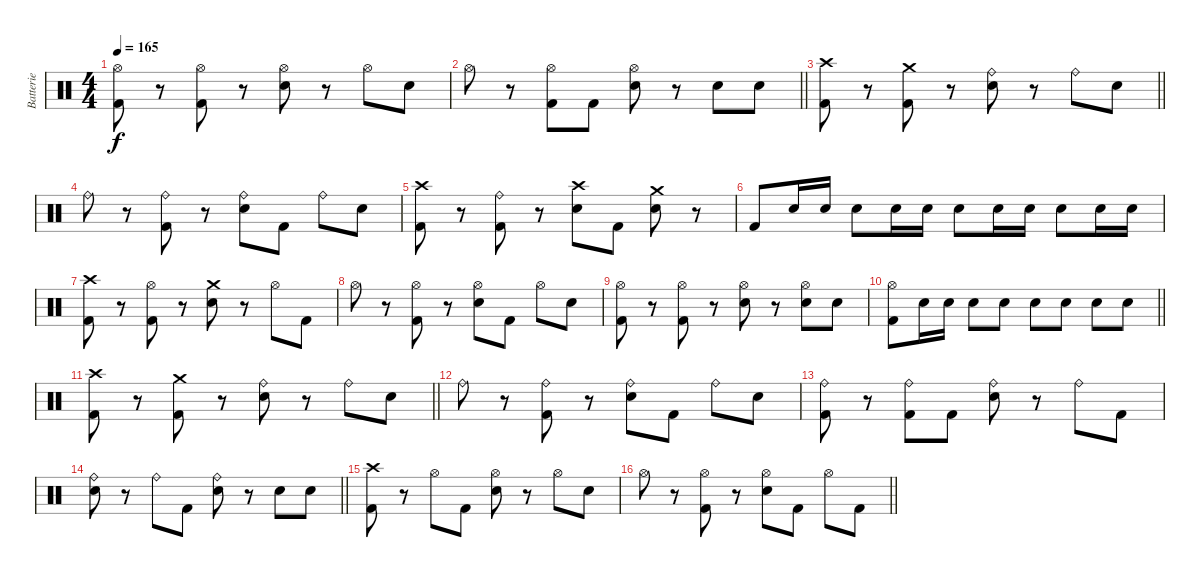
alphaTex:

\track ("Batterie" "Batterie") {instrument percussion}
\staff {score}
\articulation defaults
\ts (4 4)
\tempo 165
\clef neutral
\ks c
("Hi-Hat (open)" "Kick (hit) 2").8{dy f} r.8 ("Hi-Hat (open)" "Kick (hit) 2").8 r.8 ("Hi-Hat (open)" "Electric Snare (hit)").8 r.8 "Hi-Hat (open)".8 "Electric Snare (hit)".8 |
\barLineRight lightlight "Hi-Hat (open)".8
r.8 ("Hi-Hat (open)" "Kick (hit) 2").8 "Kick (hit) 2".8 ("Hi-Hat (open)" "Electric Snare (hit)").8 r.8 "Electric Snare (hit)".8 "Electric Snare (hit)".8 |
\barLineRight lightlight
("Crash high (hit)" "Kick (hit) 2").8 r.8 ("Crash medium (hit)" "Kick (hit) 2").8 r.8 ("Ride (bell)" "Electric Snare (hit)").8 r.8 "Ride (bell)".8 "Electric Snare (hit)".8 |
"Ride (bell)".8 r.8 ("Ride (bell)" "Kick (hit) 2").8 r.8 ("Ride (bell)" "Electric Snare (hit)").8 "Kick (hit) 2".8 "Ride (bell)".8 "Electric Snare (hit)".8 |
("Crash high (hit)" "Kick (hit) 2").8 r.8 ("Ride (bell)" "Kick (hit) 2").8 r.8 ("Crash high (hit)" "Electric Snare (hit)").8 "Kick (hit) 2".8 ("Crash medium (hit)" "Electric Snare (hit)").8 r.8 |
"Kick (hit) 2".8 "Electric Snare (hit)".16 "Electric Snare (hit)".16 "Electric Snare (hit)".8 "Electric Snare (hit)".16 "Electric Snare (hit)".16 "Electric Snare (hit)".8 "Electric Snare (hit)".16 "Electric Snare (hit)".16 "Electric Snare (hit)".8 "Electric Snare (hit)".16 "Electric Snare (hit)".16 |
("Crash high (hit)" "Kick (hit) 2").8 r.8 ("Hi-Hat (open)" "Kick (hit) 2").8 r.8 ("Crash medium (hit)" "Electric Snare (hit)").8 r.8 "Hi-Hat (open)".8 "Kick (hit) 2".8 |
"Hi-Hat (open)".8 r.8 ("Hi-Hat (open)" "Kick (hit) 2").8 r.8 ("Hi-Hat (open)" "Electric Snare (hit)").8 "Kick (hit) 2".8 "Hi-Hat (open)".8 "Electric Snare (hit)".8 |
("Hi-Hat (open)" "Kick (hit) 2").8 r.8 ("Hi-Hat (open)" "Kick (hit) 2").8 r.8 ("Hi-Hat (open)" "Electric Snare (hit)").8 r.8 ("Hi-Hat (open)" "Electric Snare (hit)").8 "Electric Snare (hit)".8 |
\barLineRight lightlight
("Hi-Hat (open)" "Kick (hit) 2").8 "Electric Snare (hit)".16 "Electric Snare (hit)".16 "Electric Snare (hit)".8 "Electric Snare (hit)".8 "Electric Snare (hit)".8 "Electric Snare (hit)".8 "Electric Snare (hit)".8 "Electric Snare (hit)".8 |
\barLineRight lightlight
("Crash high (hit)" "Kick (hit) 2").8 r.8 ("Crash medium (hit)" "Kick (hit) 2").8 r.8 ("Ride (bell)" "Electric Snare (hit)").8 r.8 "Ride (bell)".8 "Electric Snare (hit)".8 |
"Ride (bell)".8 r.8 ("Ride (bell)" "Kick (hit) 2").8 r.8 ("Ride (bell)" "Electric Snare (hit)").8 "Kick (hit) 2".8 "Ride (bell)".8 "Electric Snare (hit)".8 |
("Ride (bell)" "Kick (hit) 2").8 r.8 ("Ride (bell)" "Kick (hit) 2").8 "Kick (hit) 2".8 ("Ride (bell)" "Electric Snare (hit)").8 r.8 "Ride (bell)".8 "Kick (hit) 2".8 |
\barLineRight lightlight
("Ride (bell)" "Electric Snare (hit)").8 r.8 "Ride (bell)".8 "Kick (hit) 2".8 ("Ride (bell)" "Electric Snare (hit)").8 r.8 "Electric Snare (hit)".8 "Electric Snare (hit)".8 |
("Crash high (hit)" "Kick (hit) 2").8 r.8 "Hi-Hat (open)".8 "Kick (hit) 2".8 ("Hi-Hat (open)" "Electric Snare (hit)").8 r.8 "Hi-Hat (open)".8 "Electric Snare (hit)".8 |
\barLineRight lightlight "Hi-Hat (open)".8
r.8 ("Hi-Hat (open)" "Kick (hit) 2").8 r.8 ("Hi-Hat (open)" "Electric Snare (hit)").8 "Kick (hit) 2".8 "Hi-Hat (open)".8 "Kick (hit) 2".8
